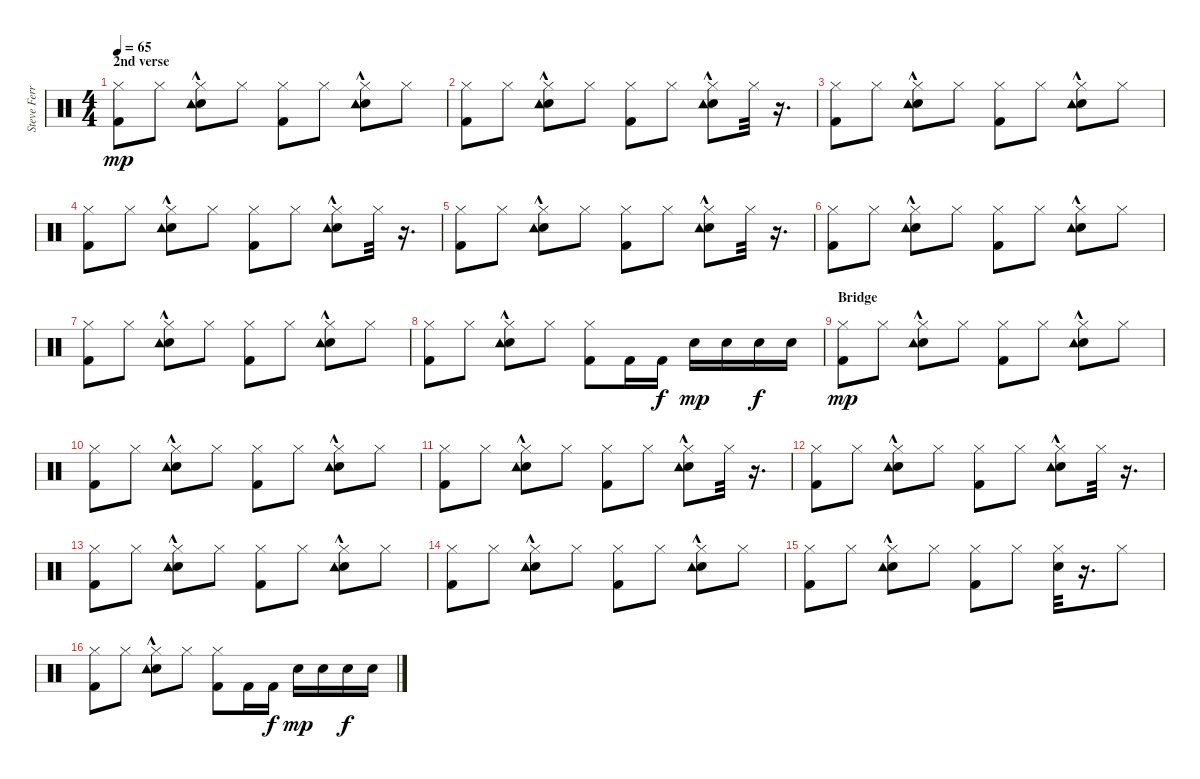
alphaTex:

\track ("Steve Ferrone & Ray Cooper" "Steve Ferr") {instrument percussion}
\staff {score}
\articulation defaults
\ts (4 4)
\section ("" "2nd verse")
\tempo 65
\clef neutral
\ks c
("Kick (hit) 2" "Hi-Hat (closed)").8{dy mp} "Hi-Hat (closed)".8 ("Hi-Hat (closed)" "Snare (hit) 2"{hac} "Tambourine (hit)"{hac}).8 "Hi-Hat (closed)".8 ("Kick (hit) 2" "Hi-Hat (closed)").8 "Hi-Hat (closed)".8 ("Hi-Hat (closed)" "Snare (hit) 2" "Tambourine (hit)"{hac}).8 "Hi-Hat (closed)".8 |
("Kick (hit) 2" "Hi-Hat (closed)").8 "Hi-Hat (closed)".8 ("Hi-Hat (closed)" "Snare (hit) 2"{hac} "Tambourine (hit)"{hac}).8 "Hi-Hat (closed)".8 ("Kick (hit) 2" "Hi-Hat (closed)").8 "Hi-Hat (closed)".8 ("Hi-Hat (closed)" "Snare (hit) 2" "Tambourine (hit)"{hac}).8 "Hi-Hat (closed)".32 r.16{d} |
("Kick (hit) 2" "Hi-Hat (closed)").8 "Hi-Hat (closed)".8 ("Hi-Hat (closed)" "Snare (hit) 2"{hac} "Tambourine (hit)"{hac}).8 "Hi-Hat (closed)".8 ("Kick (hit) 2" "Hi-Hat (closed)").8 "Hi-Hat (closed)".8 ("Hi-Hat (closed)" "Snare (hit) 2" "Tambourine (hit)"{hac}).8 "Hi-Hat (closed)".8 |
("Kick (hit) 2" "Hi-Hat (closed)").8 "Hi-Hat (closed)".8 ("Hi-Hat (closed)" "Snare (hit) 2"{hac} "Tambourine (hit)"{hac}).8 "Hi-Hat (closed)".8 ("Kick (hit) 2" "Hi-Hat (closed)").8 "Hi-Hat (closed)".8 ("Hi-Hat (closed)" "Snare (hit) 2" "Tambourine (hit)"{hac}).8 "Hi-Hat (closed)".32 r.16{d} |
("Kick (hit) 2" "Hi-Hat (closed)").8 "Hi-Hat (closed)".8 ("Hi-Hat (closed)" "Snare (hit) 2"{hac} "Tambourine (hit)"{hac}).8 "Hi-Hat (closed)".8 ("Kick (hit) 2" "Hi-Hat (closed)").8 "Hi-Hat (closed)".8 ("Hi-Hat (closed)" "Snare (hit) 2" "Tambourine (hit)"{hac}).8 "Hi-Hat (closed)".32 r.16{d} |
("Kick (hit) 2" "Hi-Hat (closed)").8 "Hi-Hat (closed)".8 ("Hi-Hat (closed)" "Snare (hit) 2"{hac} "Tambourine (hit)"{hac}).8 "Hi-Hat (closed)".8 ("Kick (hit) 2" "Hi-Hat (closed)").8 "Hi-Hat (closed)".8 ("Hi-Hat (closed)" "Snare (hit) 2" "Tambourine (hit)"{hac}).8 "Hi-Hat (closed)".8 |
("Kick (hit) 2" "Hi-Hat (closed)").8 "Hi-Hat (closed)".8 ("Hi-Hat (closed)" "Snare (hit) 2"{hac} "Tambourine (hit)"{hac}).8 "Hi-Hat (closed)".8 ("Kick (hit) 2" "Hi-Hat (closed)").8 "Hi-Hat (closed)".8 ("Hi-Hat (closed)" "Snare (hit) 2" "Tambourine (hit)"{hac}).8 "Hi-Hat (closed)".8 |
("Kick (hit) 2" "Hi-Hat (closed)").8 "Hi-Hat (closed)".8 ("Hi-Hat (closed)" "Snare (hit) 2"{hac} "Tambourine (hit)"{hac}).8 "Hi-Hat (closed)".8 ("Kick (hit) 2" "Hi-Hat (closed)").8 "Kick (hit) 2".16 "Kick (hit) 2".16{dy f} "Snare (hit) 2".16{dy mp} "Snare (hit) 2".16 "Snare (hit) 2".16{dy f} "Snare (hit) 2".16 |
\section ("" "Bridge")
("Kick (hit) 2" "Hi-Hat (closed)").8{dy mp} "Hi-Hat (closed)".8 ("Hi-Hat (closed)" "Snare (hit) 2"{hac} "Tambourine (hit)"{hac}).8 "Hi-Hat (closed)".8 ("Kick (hit) 2" "Hi-Hat (closed)").8 "Hi-Hat (closed)".8 ("Hi-Hat (closed)" "Snare (hit) 2" "Tambourine (hit)"{hac}).8 "Hi-Hat (closed)".8 |
("Kick (hit) 2" "Hi-Hat (closed)").8 "Hi-Hat (closed)".8 ("Hi-Hat (closed)" "Snare (hit) 2"{hac} "Tambourine (hit)"{hac}).8 "Hi-Hat (closed)".8 ("Kick (hit) 2" "Hi-Hat (closed)").8 "Hi-Hat (closed)".8 ("Hi-Hat (closed)" "Snare (hit) 2" "Tambourine (hit)"{hac}).8 "Hi-Hat (closed)".8 |
("Kick (hit) 2" "Hi-Hat (closed)").8 "Hi-Hat (closed)".8 ("Hi-Hat (closed)" "Snare (hit) 2"{hac} "Tambourine (hit)"{hac}).8 "Hi-Hat (closed)".8 ("Kick (hit) 2" "Hi-Hat (closed)").8 "Hi-Hat (closed)".8 ("Hi-Hat (closed)" "Snare (hit) 2" "Tambourine (hit)"{hac}).8 "Hi-Hat (closed)".32 r.16{d} |
("Kick (hit) 2" "Hi-Hat (closed)").8 "Hi-Hat (closed)".8 ("Hi-Hat (closed)" "Snare (hit) 2"{hac} "Tambourine (hit)"{hac}).8 "Hi-Hat (closed)".8 ("Kick (hit) 2" "Hi-Hat (closed)").8 "Hi-Hat (closed)".8 ("Hi-Hat (closed)" "Snare (hit) 2" "Tambourine (hit)"{hac}).8 "Hi-Hat (closed)".32 r.16{d} |
("Kick (hit) 2" "Hi-Hat (closed)").8 "Hi-Hat (closed)".8 ("Hi-Hat (closed)" "Snare (hit) 2"{hac} "Tambourine (hit)"{hac}).8 "Hi-Hat (closed)".8 ("Kick (hit) 2" "Hi-Hat (closed)").8 "Hi-Hat (closed)".8 ("Hi-Hat (closed)" "Snare (hit) 2" "Tambourine (hit)"{hac}).8 "Hi-Hat (closed)".8 |
("Kick (hit) 2" "Hi-Hat (closed)").8 "Hi-Hat (closed)".8 ("Hi-Hat (closed)" "Snare (hit) 2"{hac} "Tambourine (hit)"{hac}).8 "Hi-Hat (closed)".8 ("Kick (hit) 2" "Hi-Hat (closed)").8 "Hi-Hat (closed)".8 ("Hi-Hat (closed)" "Snare (hit) 2" "Tambourine (hit)"{hac}).8 "Hi-Hat (closed)".8 |
("Kick (hit) 2" "Hi-Hat (closed)").8 "Hi-Hat (closed)".8 ("Hi-Hat (closed)" "Snare (hit) 2"{hac} "Tambourine (hit)"{hac}).8 "Hi-Hat (closed)".8 ("Kick (hit) 2" "Hi-Hat (closed)").8 "Hi-Hat (closed)".8 ("Snare (hit) 2" "Hi-Hat (closed)").32 r.16{d} "Hi-Hat (closed)".8 |
("Kick (hit) 2" "Hi-Hat (closed)").8 "Hi-Hat (closed)".8 ("Hi-Hat (closed)" "Snare (hit) 2"{hac} "Tambourine (hit)"{hac}).8 "Hi-Hat (closed)".8 ("Kick (hit) 2" "Hi-Hat (closed)").8 "Kick (hit) 2".16 "Kick (hit) 2".16{dy f} "Snare (hit) 2".16{dy mp} "Snare (hit) 2".16 "Snare (hit) 2".16{dy f} "Snare (hit) 2".16
